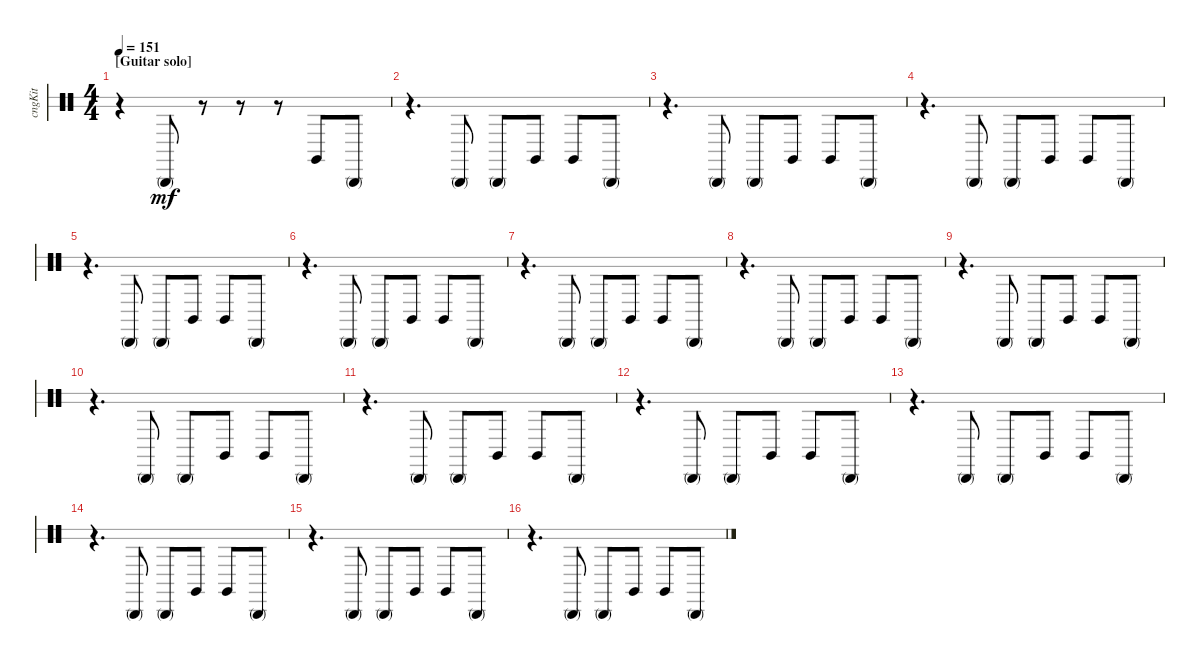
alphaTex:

\bracketExtendMode groupsimilarinstruments
\track ("Congas" "cngKit") {instrument percussion}
\staff {score 2}
\articulation defaults
\ts (4 4)
\section ("" "[Guitar solo]")
\tempo 151
\clef neutral
\ks aminor
r.4{dy mf} "Conga high (mute)".8 r.8 r.8 r.8 "Conga high (hit)".8 "Conga high (mute)".8 |
r.4{d} "Conga high (mute)".8 "Conga high (mute)".8 "Conga high (hit)".8 "Conga high (hit)".8 "Conga high (mute)".8 |
r.4{d} "Conga high (mute)".8 "Conga high (mute)".8 "Conga high (hit)".8 "Conga high (hit)".8 "Conga high (mute)".8 |
r.4{d} "Conga high (mute)".8 "Conga high (mute)".8 "Conga high (hit)".8 "Conga high (hit)".8 "Conga high (mute)".8 |
r.4{d} "Conga high (mute)".8 "Conga high (mute)".8 "Conga high (hit)".8 "Conga high (hit)".8 "Conga high (mute)".8 |
r.4{d} "Conga high (mute)".8 "Conga high (mute)".8 "Conga high (hit)".8 "Conga high (hit)".8 "Conga high (mute)".8 |
r.4{d} "Conga high (mute)".8 "Conga high (mute)".8 "Conga high (hit)".8 "Conga high (hit)".8 "Conga high (mute)".8 |
r.4{d} "Conga high (mute)".8 "Conga high (mute)".8 "Conga high (hit)".8 "Conga high (hit)".8 "Conga high (mute)".8 |
r.4{d} "Conga high (mute)".8 "Conga high (mute)".8 "Conga high (hit)".8 "Conga high (hit)".8 "Conga high (mute)".8 |
r.4{d} "Conga high (mute)".8 "Conga high (mute)".8 "Conga high (hit)".8 "Conga high (hit)".8 "Conga high (mute)".8 |
r.4{d} "Conga high (mute)".8 "Conga high (mute)".8 "Conga high (hit)".8 "Conga high (hit)".8 "Conga high (mute)".8 |
r.4{d} "Conga high (mute)".8 "Conga high (mute)".8 "Conga high (hit)".8 "Conga high (hit)".8 "Conga high (mute)".8 |
r.4{d} "Conga high (mute)".8 "Conga high (mute)".8 "Conga high (hit)".8 "Conga high (hit)".8 "Conga high (mute)".8 |
r.4{d} "Conga high (mute)".8 "Conga high (mute)".8 "Conga high (hit)".8 "Conga high (hit)".8 "Conga high (mute)".8 |
r.4{d} "Conga high (mute)".8 "Conga high (mute)".8 "Conga high (hit)".8 "Conga high (hit)".8 "Conga high (mute)".8 |
r.4{d} "Conga high (mute)".8 "Conga high (mute)".8 "Conga high (hit)".8 "Conga high (hit)".8 "Conga high (mute)".8
